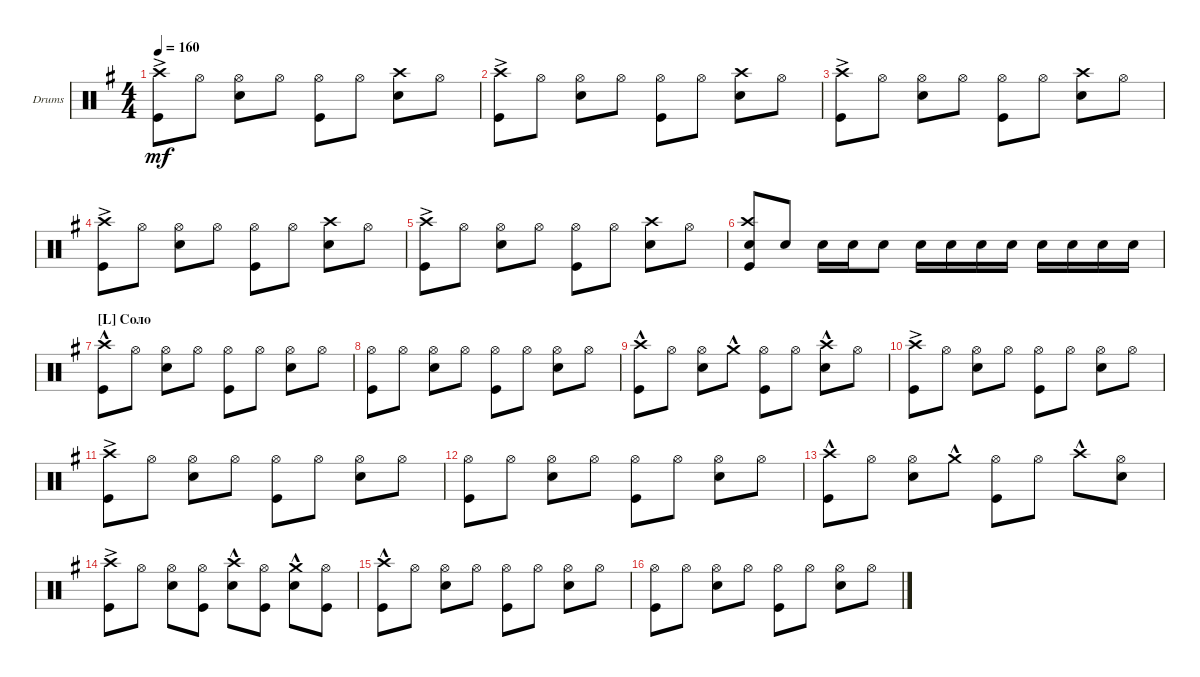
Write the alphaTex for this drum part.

\defaultSystemsLayout 4
\bracketExtendMode groupsimilarinstruments
\firstSystemTrackNameOrientation horizontal
\otherSystemsTrackNameOrientation horizontal
\track ("Drumkit" "Drums") {instrument percussion}
\staff {score}
\articulation defaults
\ts (4 4)
\tempo 160
\clef neutral
\ks eminor
("Kick (hit)" "Crash high (hit)"{ac}).8{dy mf} "Hi-Hat (open)".8 ("Hi-Hat (open)" "Snare (hit) 2").8 "Hi-Hat (open)".8 ("Hi-Hat (open)" "Kick (hit)").8 "Hi-Hat (open)".8 ("Snare (hit) 2" "Crash high (hit)").8 "Hi-Hat (open)".8 |
("Kick (hit)" "Crash high (hit)"{ac}).8 "Hi-Hat (open)".8 ("Hi-Hat (open)" "Snare (hit) 2").8 "Hi-Hat (open)".8 ("Hi-Hat (open)" "Kick (hit)").8 "Hi-Hat (open)".8 ("Snare (hit) 2" "Crash high (hit)").8 "Hi-Hat (open)".8 |
("Kick (hit)" "Crash high (hit)"{ac}).8 "Hi-Hat (open)".8 ("Hi-Hat (open)" "Snare (hit) 2").8 "Hi-Hat (open)".8 ("Hi-Hat (open)" "Kick (hit)").8 "Hi-Hat (open)".8 ("Snare (hit) 2" "Crash high (hit)").8 "Hi-Hat (open)".8 |
("Kick (hit)" "Crash high (hit)"{ac}).8 "Hi-Hat (open)".8 ("Hi-Hat (open)" "Snare (hit) 2").8 "Hi-Hat (open)".8 ("Hi-Hat (open)" "Kick (hit)").8 "Hi-Hat (open)".8 ("Snare (hit) 2" "Crash high (hit)").8 "Hi-Hat (open)".8 |
("Kick (hit)" "Crash high (hit)"{ac}).8 "Hi-Hat (open)".8 ("Hi-Hat (open)" "Snare (hit) 2").8 "Hi-Hat (open)".8 ("Hi-Hat (open)" "Kick (hit)").8 "Hi-Hat (open)".8 ("Snare (hit) 2" "Crash high (hit)").8 "Hi-Hat (open)".8 |
("Snare (hit) 2" "Kick (hit)" "Crash high (hit)").8 "Snare (hit) 2".8 "Snare (hit) 2".16 "Snare (hit) 2".16 "Snare (hit) 2".8 "Snare (hit) 2".16 "Snare (hit) 2".16 "Snare (hit) 2".16 "Snare (hit) 2".16 "Snare (hit) 2".16 "Snare (hit) 2".16 "Snare (hit) 2".16 "Snare (hit) 2".16 |
\section ("L" "Соло")
("Kick (hit)" "Crash high (hit)"{hac}).8 "Hi-Hat (open)".8 ("Hi-Hat (open)" "Snare (hit) 2").8 "Hi-Hat (open)".8 ("Hi-Hat (open)" "Kick (hit)").8 "Hi-Hat (open)".8 ("Hi-Hat (open)" "Snare (hit) 2").8 "Hi-Hat (open)".8 |
("Hi-Hat (open)" "Kick (hit)").8 "Hi-Hat (open)".8 ("Hi-Hat (open)" "Snare (hit) 2").8 "Hi-Hat (open)".8 ("Hi-Hat (open)" "Kick (hit)").8 "Hi-Hat (open)".8 ("Hi-Hat (open)" "Snare (hit) 2").8 "Hi-Hat (open)".8 |
("Kick (hit)" "Crash high (hit)"{hac}).8 "Hi-Hat (open)".8 ("Hi-Hat (open)" "Snare (hit) 2").8 "Crash medium (hit)"{hac}.8 ("Hi-Hat (open)" "Kick (hit)").8 "Hi-Hat (open)".8 ("Crash high (hit)"{hac} "Snare (hit) 2").8 "Hi-Hat (open)".8 |
("Kick (hit)" "Crash high (hit)"{ac}).8 "Hi-Hat (open)".8 ("Hi-Hat (open)" "Snare (hit) 2").8 "Hi-Hat (open)".8 ("Hi-Hat (open)" "Kick (hit)").8 "Hi-Hat (open)".8 ("Hi-Hat (open)" "Snare (hit) 2").8 "Hi-Hat (open)".8 |
\scale
0.307692 ("Kick (hit)" "Crash high (hit)"{ac}).8 "Hi-Hat (open)".8 ("Hi-Hat (open)" "Snare (hit) 2").8 "Hi-Hat (open)".8 ("Hi-Hat (open)" "Kick (hit)").8 "Hi-Hat (open)".8 ("Hi-Hat (open)" "Snare (hit) 2").8 "Hi-Hat (open)".8 |
\scale
0.239769 ("Hi-Hat (open)" "Kick (hit)").8 "Hi-Hat (open)".8 ("Hi-Hat (open)" "Snare (hit) 2").8 "Hi-Hat (open)".8 ("Hi-Hat (open)" "Kick (hit)").8 "Hi-Hat (open)".8 ("Hi-Hat (open)" "Snare (hit) 2").8 "Hi-Hat (open)".8 |
\scale
0.222169 ("Kick (hit)" "Crash high (hit)"{hac}).8 "Hi-Hat (open)".8 ("Hi-Hat (open)" "Snare (hit) 2").8 "Crash medium (hit)"{hac}.8 ("Hi-Hat (open)" "Kick (hit)").8 "Hi-Hat (open)".8 "Crash high (hit)"{hac}.8 ("Hi-Hat (open)" "Snare (hit) 2").8 |
\scale
0.230769 ("Kick (hit)" "Crash high (hit)"{ac}).8 "Hi-Hat (open)".8 ("Hi-Hat (open)" "Snare (hit) 2").8 ("Hi-Hat (open)" "Kick (hit)").8 ("Snare (hit) 2" "Crash high (hit)"{hac}).8 ("Hi-Hat (open)" "Kick (hit)").8 ("Snare (hit) 2" "Crash medium (hit)"{hac}).8 ("Hi-Hat (open)" "Kick (hit)").8 |
("Kick (hit)" "Crash high (hit)"{hac}).8 "Hi-Hat (open)".8 ("Hi-Hat (open)" "Snare (hit) 2").8 "Hi-Hat (open)".8 ("Hi-Hat (open)" "Kick (hit)").8 "Hi-Hat (open)".8 ("Hi-Hat (open)" "Snare (hit) 2").8 "Hi-Hat (open)".8 |
("Hi-Hat (open)" "Kick (hit)").8 "Hi-Hat (open)".8 ("Hi-Hat (open)" "Snare (hit) 2").8 "Hi-Hat (open)".8 ("Hi-Hat (open)" "Kick (hit)").8 "Hi-Hat (open)".8 ("Hi-Hat (open)" "Snare (hit) 2").8 "Hi-Hat (open)".8
